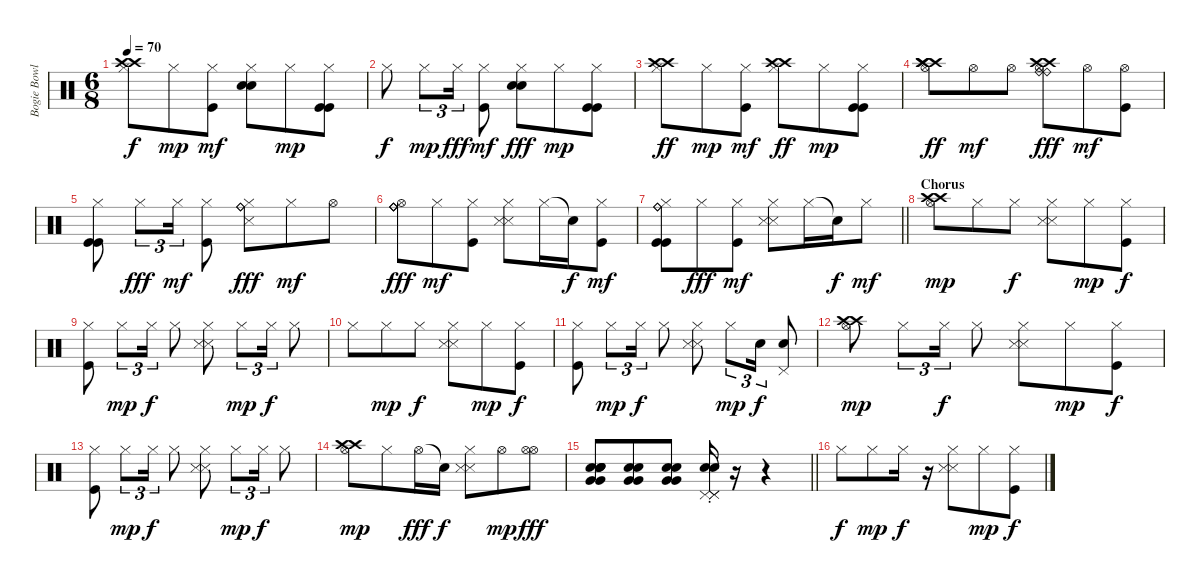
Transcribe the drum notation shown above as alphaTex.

\track ("Bogie Bowles" "Bogie Bowl") {instrument percussion}
\staff {score}
\articulation defaults
\ts (6 8)
\tempo 70
\clef neutral
\ks c
("Hi-Hat (closed)" "Crash high (hit)" "Crash high (hit)").8{dy f} "Hi-Hat (closed)".8{dy mp} ("Hi-Hat (closed)" "Kick (hit)").8{dy mf} ("Hi-Hat (closed)" "Snare (hit) 2" "Snare (hit) 2").8 "Hi-Hat (closed)".8{dy mp} ("Hi-Hat (closed)" "Kick (hit)" "Kick (hit)").8 |
"Hi-Hat (closed)".8{dy f} "Hi-Hat (closed)".8{tu (3 2) dy mp} "Hi-Hat (closed)".16{tu (3 2) dy fff} ("Hi-Hat (closed)" "Kick (hit)").8{dy mf} ("Hi-Hat (closed)" "Snare (hit) 2" "Snare (hit) 2").8{dy fff} "Hi-Hat (closed)".8{dy mp} ("Hi-Hat (closed)" "Kick (hit)" "Kick (hit)").8 |
("Hi-Hat (closed)" "Crash high (hit)" "Crash high (hit)").8{dy ff} "Hi-Hat (closed)".8{dy mp} ("Hi-Hat (closed)" "Kick (hit)").8{dy mf} ("Hi-Hat (closed)" "Crash high (hit)" "Crash high (hit)").8{dy ff} "Hi-Hat (closed)".8{dy mp} ("Hi-Hat (closed)" "Kick (hit)" "Kick (hit)").8 |
("Hi-Hat (open)" "Crash high (hit)" "Crash high (hit)" "Crash high (hit)").8{dy ff} "Hi-Hat (open)".8{dy mf} "Hi-Hat (open)".8 ("Hi-Hat (open)" "Crash high (hit)" "Crash high (hit)" "Ride (bell)" "Ride (bell)").8{dy fff} "Hi-Hat (open)".8{dy mf} ("Hi-Hat (open)" "Kick (hit)").8 |
("Hi-Hat (closed)" "Kick (hit)" "Kick (hit)").8 "Hi-Hat (closed)".8{tu (3 2) dy fff} "Hi-Hat (closed)".16{tu (3 2) dy mf} ("Hi-Hat (closed)" "Kick (hit)").8 ("Hi-Hat (closed)" "Snare (side stick) 3" "Ride (bell)" "Ride (bell)").8{dy fff} "Hi-Hat (closed)".8{dy mf} "Hi-Hat (open)".8 |
("Hi-Hat (open)" "Ride (bell)" "Ride (bell)" "Ride (bell)").8{dy fff} "Hi-Hat (closed)".8{dy mf} ("Hi-Hat (closed)" "Kick (hit)").8 ("Hi-Hat (closed)" "Snare (side stick) 3" "Snare (side stick) 3").8 "Hi-Hat (closed)".16 "Snare (hit)"{t}.16{dy f} ("Hi-Hat (closed)" "Kick (hit)").8{dy mf} |
\barLineRight lightlight
("Hi-Hat (closed)" "Ride (bell)" "Kick (hit)" "Kick (hit)" "Ride (bell)").8 "Hi-Hat (closed)".8{dy fff} ("Hi-Hat (closed)" "Kick (hit)").8{dy mf} ("Hi-Hat (closed)" "Snare (side stick) 3" "Snare (side stick) 3").8 "Hi-Hat (closed)".16 "Snare (hit)"{t}.16{dy f} "Hi-Hat (closed)".8{dy mf} |
\section ("" "Chorus")
("Hi-Hat (open)" "Crash high (hit)" "Crash high (hit)").8{dy mp} "Hi-Hat (closed)".8 "Hi-Hat (closed)".8{dy f} ("Hi-Hat (closed)" "Snare (side stick) 3" "Snare (side stick) 3").8 "Hi-Hat (closed)".8{dy mp} ("Hi-Hat (closed)" "Kick (hit)").8{dy f} |
("Hi-Hat (closed)" "Kick (hit)").8 "Hi-Hat (closed)".8{tu (3 2) dy mp} "Hi-Hat (closed)".16{tu (3 2) dy f} "Hi-Hat (closed)".8 ("Hi-Hat (closed)" "Snare (side stick) 3" "Snare (side stick) 3").8 "Hi-Hat (closed)".8{tu (3 2) dy mp} "Hi-Hat (closed)".16{tu (3 2) dy f} "Hi-Hat (closed)".8 |
"Hi-Hat (closed)".8 "Hi-Hat (closed)".8{dy mp} "Hi-Hat (closed)".8{dy f} ("Hi-Hat (closed)" "Snare (side stick) 3" "Snare (side stick) 3").8 "Hi-Hat (closed)".8{dy mp} ("Hi-Hat (closed)" "Kick (hit)").8{dy f} |
("Hi-Hat (closed)" "Kick (hit)").8 "Hi-Hat (closed)".8{tu (3 2) dy mp} "Hi-Hat (closed)".16{tu (3 2) dy f} "Hi-Hat (closed)".8 ("Hi-Hat (closed)" "Snare (side stick) 3" "Snare (side stick) 3").8 "Hi-Hat (closed)".8{tu (3 2) dy mp} "Snare (hit) 2".16{tu (3 2) dy f} ("Pedal Hi-Hat (hit)" "Snare (hit) 2").8 |
("Hi-Hat (open)" "Crash high (hit)" "Crash high (hit)").8{dy mp} "Hi-Hat (closed)".8{tu (3 2)} "Hi-Hat (closed)".16{tu (3 2) dy f} "Hi-Hat (closed)".8 ("Hi-Hat (closed)" "Snare (side stick) 3" "Snare (side stick) 3").8 "Hi-Hat (closed)".8{dy mp} ("Hi-Hat (closed)" "Kick (hit)").8{dy f} |
("Hi-Hat (closed)" "Kick (hit)").8 "Hi-Hat (closed)".8{tu (3 2) dy mp} "Hi-Hat (closed)".16{tu (3 2) dy f} "Hi-Hat (closed)".8 ("Hi-Hat (closed)" "Snare (side stick) 3" "Snare (side stick) 3").8 "Hi-Hat (closed)".8{tu (3 2) dy mp} "Hi-Hat (closed)".16{tu (3 2) dy f} "Hi-Hat (closed)".8 |
("Hi-Hat (open)" "Crash high (hit)" "Crash high (hit)").8{dy mp} "Hi-Hat (closed)".8 "Hi-Hat (open)".16{dy fff} "Snare (hit)"{t}.16{dy f} ("Hi-Hat (closed)" "Snare (side stick) 3" "Snare (side stick) 3").8 "Hi-Hat (open)".8{dy mp} ("Hi-Hat (open)" "Hi-Hat (open)").8{dy fff} |
\barLineRight lightlight
("Snare (hit) 2" "Snare (hit) 2" "Snare (hit) 2" "Snare (hit) 2" "Very Low Tom (hit)" "Very Low Tom (hit)").8 ("Snare (hit) 2" "Snare (hit) 2" "Very Low Tom (hit)" "Very Low Tom (hit)").8 ("Snare (hit) 2" "Snare (hit) 2" "Very Low Tom (hit)" "Very Low Tom (hit)").8 ("Pedal Hi-Hat (hit)"{st} "Pedal Hi-Hat (hit)"{st} "Pedal Hi-Hat (hit)"{st} "Snare (hit) 2"{st} "Snare (hit) 2"{st}).16 r.16 r.4 |
"Hi-Hat (closed)".8{dy f} "Hi-Hat (closed)".8{dy mp} "Hi-Hat (closed)".16{dy f} r.16 ("Hi-Hat (closed)" "Snare (side stick) 3" "Snare (side stick) 3").8 "Hi-Hat (closed)".8{dy mp} ("Hi-Hat (closed)" "Kick (hit)").8{dy f}
